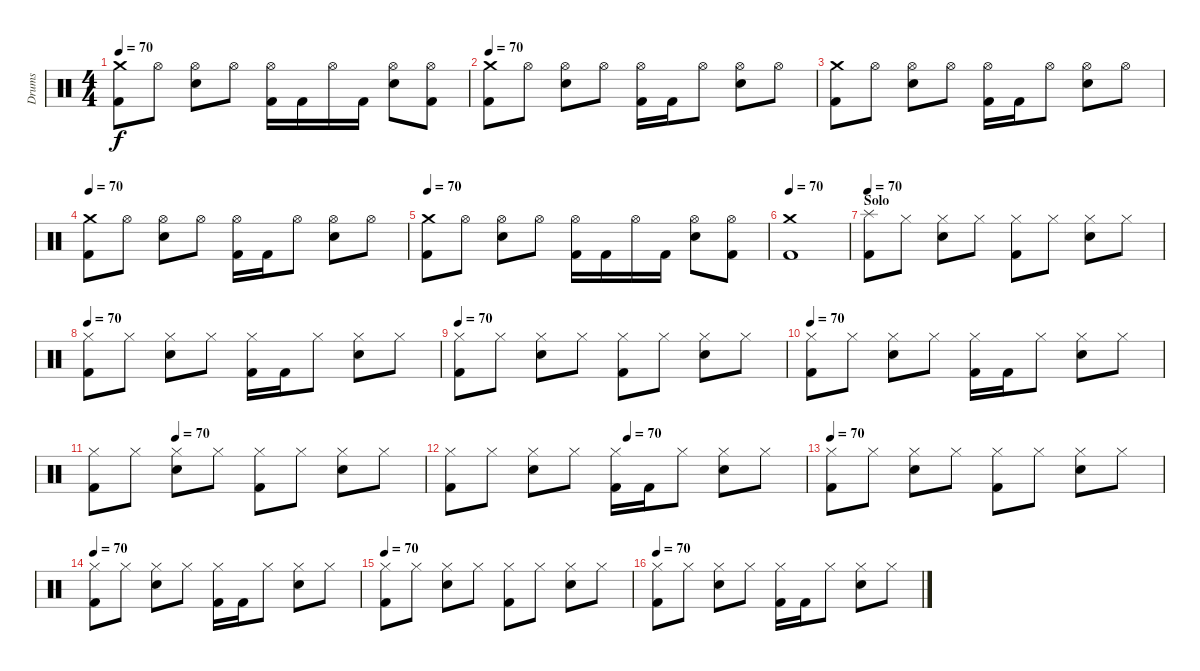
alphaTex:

\track ("Drums" "Drums") {instrument percussion}
\staff {score}
\articulation defaults
\ts (4 4)
\tempo 70
\clef neutral
\ks c
("Crash medium (hit)" "Kick (hit) 2").8{dy f} "Hi-Hat (open)".8 ("Hi-Hat (open)" "Snare (hit) 2").8 "Hi-Hat (open)".8 ("Hi-Hat (open)" "Kick (hit) 2").16 "Kick (hit) 2".16 "Hi-Hat (open)".16 "Kick (hit) 2".16 ("Hi-Hat (open)" "Snare (hit) 2").8 ("Hi-Hat (open)" "Kick (hit) 2").8 |
\tempo 70
("Crash medium (hit)" "Kick (hit) 2").8 "Hi-Hat (open)".8 ("Hi-Hat (open)" "Snare (hit) 2").8 "Hi-Hat (open)".8 ("Hi-Hat (open)" "Kick (hit) 2").16 "Kick (hit) 2".16 "Hi-Hat (open)".8 ("Hi-Hat (open)" "Snare (hit) 2").8 "Hi-Hat (open)".8 |
("Crash medium (hit)" "Kick (hit) 2").8 "Hi-Hat (open)".8 ("Hi-Hat (open)" "Snare (hit) 2").8 "Hi-Hat (open)".8 ("Hi-Hat (open)" "Kick (hit) 2").16 "Kick (hit) 2".16 "Hi-Hat (open)".8 ("Hi-Hat (open)" "Snare (hit) 2").8 "Hi-Hat (open)".8 |
\tempo 70
("Crash medium (hit)" "Kick (hit) 2").8 "Hi-Hat (open)".8 ("Hi-Hat (open)" "Snare (hit) 2").8 "Hi-Hat (open)".8 ("Hi-Hat (open)" "Kick (hit) 2").16 "Kick (hit) 2".16 "Hi-Hat (open)".8 ("Hi-Hat (open)" "Snare (hit) 2").8 "Hi-Hat (open)".8 |
\tempo 70
("Crash medium (hit)" "Kick (hit) 2").8 "Hi-Hat (open)".8 ("Hi-Hat (open)" "Snare (hit) 2").8 "Hi-Hat (open)".8 ("Hi-Hat (open)" "Kick (hit) 2").16 "Kick (hit) 2".16 "Hi-Hat (open)".16 "Kick (hit) 2".16 ("Hi-Hat (open)" "Snare (hit) 2").8 ("Hi-Hat (open)" "Kick (hit) 2").8 |
\tempo 70
("Crash medium (hit)" "Kick (hit) 2").1 |
\section ("" "Solo")
\tempo 70
("Splash (hit)" "Kick (hit) 2").8 "Hi-Hat (closed)".8 ("Hi-Hat (closed)" "Snare (hit) 2").8 "Hi-Hat (closed)".8 ("Hi-Hat (closed)" "Kick (hit) 2").8 "Hi-Hat (closed)".8 ("Hi-Hat (closed)" "Snare (hit) 2").8 "Hi-Hat (closed)".8 |
\tempo 70
("Hi-Hat (closed)" "Kick (hit) 2").8 "Hi-Hat (closed)".8 ("Hi-Hat (closed)" "Snare (hit) 2").8 "Hi-Hat (closed)".8 ("Hi-Hat (closed)" "Kick (hit) 2").16 "Kick (hit) 2".16 "Hi-Hat (closed)".8 ("Hi-Hat (closed)" "Snare (hit) 2").8 "Hi-Hat (closed)".8 |
\tempo 70
("Hi-Hat (closed)" "Kick (hit) 2").8 "Hi-Hat (closed)".8 ("Hi-Hat (closed)" "Snare (hit) 2").8 "Hi-Hat (closed)".8 ("Hi-Hat (closed)" "Kick (hit) 2").8 "Hi-Hat (closed)".8 ("Hi-Hat (closed)" "Snare (hit) 2").8 "Hi-Hat (closed)".8 |
\tempo 70
("Hi-Hat (closed)" "Kick (hit) 2").8 "Hi-Hat (closed)".8 ("Hi-Hat (closed)" "Snare (hit) 2").8 "Hi-Hat (closed)".8 ("Hi-Hat (closed)" "Kick (hit) 2").16 "Kick (hit) 2".16 "Hi-Hat (closed)".8 ("Hi-Hat (closed)" "Snare (hit) 2").8 "Hi-Hat (closed)".8 |
\tempo (70 0.25)
("Hi-Hat (closed)" "Kick (hit) 2").8 "Hi-Hat (closed)".8 ("Hi-Hat (closed)" "Snare (hit) 2").8 "Hi-Hat (closed)".8 ("Hi-Hat (closed)" "Kick (hit) 2").8 "Hi-Hat (closed)".8 ("Hi-Hat (closed)" "Snare (hit) 2").8 "Hi-Hat (closed)".8 |
\tempo (70 0.5)
("Hi-Hat (closed)" "Kick (hit) 2").8 "Hi-Hat (closed)".8 ("Hi-Hat (closed)" "Snare (hit) 2").8 "Hi-Hat (closed)".8 ("Hi-Hat (closed)" "Kick (hit) 2").16 "Kick (hit) 2".16 "Hi-Hat (closed)".8 ("Hi-Hat (closed)" "Snare (hit) 2").8 "Hi-Hat (closed)".8 |
\tempo 70
("Hi-Hat (closed)" "Kick (hit) 2").8 "Hi-Hat (closed)".8 ("Hi-Hat (closed)" "Snare (hit) 2").8 "Hi-Hat (closed)".8 ("Hi-Hat (closed)" "Kick (hit) 2").8 "Hi-Hat (closed)".8 ("Hi-Hat (closed)" "Snare (hit) 2").8 "Hi-Hat (closed)".8 |
\tempo 70
("Hi-Hat (closed)" "Kick (hit) 2").8 "Hi-Hat (closed)".8 ("Hi-Hat (closed)" "Snare (hit) 2").8 "Hi-Hat (closed)".8 ("Hi-Hat (closed)" "Kick (hit) 2").16 "Kick (hit) 2".16 "Hi-Hat (closed)".8 ("Hi-Hat (closed)" "Snare (hit) 2").8 "Hi-Hat (closed)".8 |
\tempo 70
("Hi-Hat (closed)" "Kick (hit) 2").8 "Hi-Hat (closed)".8 ("Hi-Hat (closed)" "Snare (hit) 2").8 "Hi-Hat (closed)".8 ("Hi-Hat (closed)" "Kick (hit) 2").8 "Hi-Hat (closed)".8 ("Hi-Hat (closed)" "Snare (hit) 2").8 "Hi-Hat (closed)".8 |
\tempo 70
("Hi-Hat (closed)" "Kick (hit) 2").8 "Hi-Hat (closed)".8 ("Hi-Hat (closed)" "Snare (hit) 2").8 "Hi-Hat (closed)".8 ("Hi-Hat (closed)" "Kick (hit) 2").16 "Kick (hit) 2".16 "Hi-Hat (closed)".8 ("Hi-Hat (closed)" "Snare (hit) 2").8 "Hi-Hat (closed)".8
